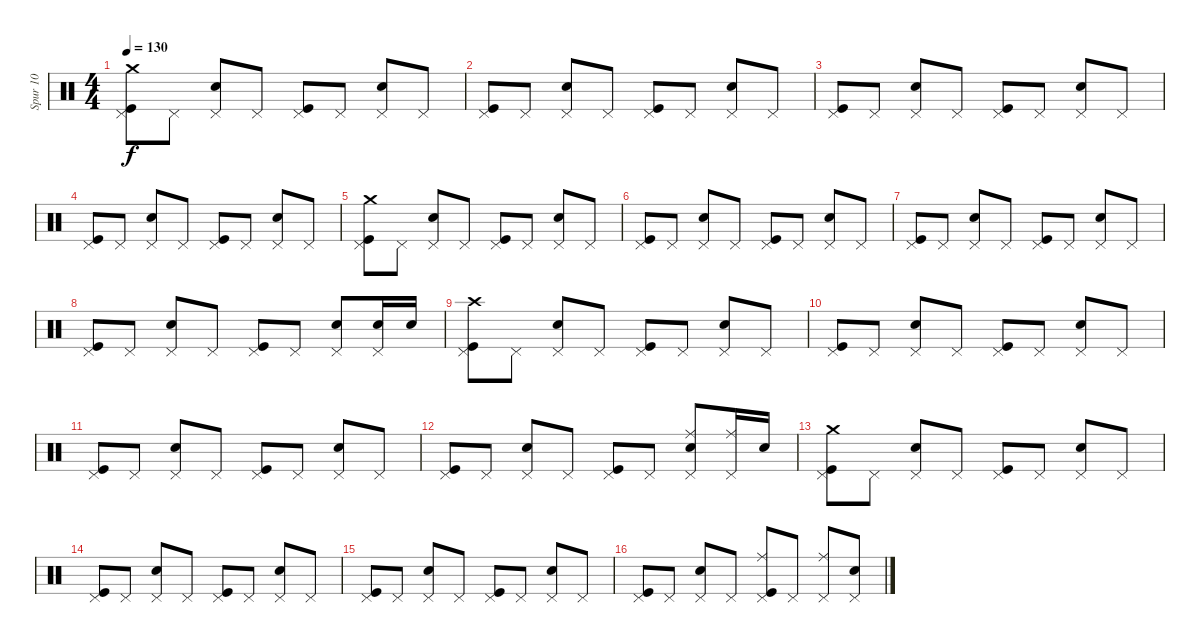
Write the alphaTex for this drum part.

\track ("Spur 10" "Spur 10") {instrument percussion}
\staff {score}
\articulation defaults
\ts (4 4)
\tempo 130
\clef neutral
\ks c
("Pedal Hi-Hat (hit)" "Kick (hit)" "Crash medium (hit)").8{dy f} "Pedal Hi-Hat (hit)".8 ("Pedal Hi-Hat (hit)" "Electric Snare (hit)").8 "Pedal Hi-Hat (hit)".8 ("Pedal Hi-Hat (hit)" "Kick (hit)").8 "Pedal Hi-Hat (hit)".8 ("Pedal Hi-Hat (hit)" "Electric Snare (hit)").8 "Pedal Hi-Hat (hit)".8 |
("Pedal Hi-Hat (hit)" "Kick (hit)").8 "Pedal Hi-Hat (hit)".8 ("Pedal Hi-Hat (hit)" "Electric Snare (hit)").8 "Pedal Hi-Hat (hit)".8 ("Pedal Hi-Hat (hit)" "Kick (hit)").8 "Pedal Hi-Hat (hit)".8 ("Pedal Hi-Hat (hit)" "Electric Snare (hit)").8 "Pedal Hi-Hat (hit)".8 |
("Pedal Hi-Hat (hit)" "Kick (hit)").8 "Pedal Hi-Hat (hit)".8 ("Pedal Hi-Hat (hit)" "Electric Snare (hit)").8 "Pedal Hi-Hat (hit)".8 ("Pedal Hi-Hat (hit)" "Kick (hit)").8 "Pedal Hi-Hat (hit)".8 ("Pedal Hi-Hat (hit)" "Electric Snare (hit)").8 "Pedal Hi-Hat (hit)".8 |
("Pedal Hi-Hat (hit)" "Kick (hit)").8 "Pedal Hi-Hat (hit)".8 ("Pedal Hi-Hat (hit)" "Electric Snare (hit)").8 "Pedal Hi-Hat (hit)".8 ("Pedal Hi-Hat (hit)" "Kick (hit)").8 "Pedal Hi-Hat (hit)".8 ("Pedal Hi-Hat (hit)" "Electric Snare (hit)").8 "Pedal Hi-Hat (hit)".8 |
("Pedal Hi-Hat (hit)" "Kick (hit)" "Crash medium (hit)").8 "Pedal Hi-Hat (hit)".8 ("Pedal Hi-Hat (hit)" "Electric Snare (hit)").8 "Pedal Hi-Hat (hit)".8 ("Pedal Hi-Hat (hit)" "Kick (hit)").8 "Pedal Hi-Hat (hit)".8 ("Pedal Hi-Hat (hit)" "Electric Snare (hit)").8 "Pedal Hi-Hat (hit)".8 |
("Pedal Hi-Hat (hit)" "Kick (hit)").8 "Pedal Hi-Hat (hit)".8 ("Pedal Hi-Hat (hit)" "Electric Snare (hit)").8 "Pedal Hi-Hat (hit)".8 ("Pedal Hi-Hat (hit)" "Kick (hit)").8 "Pedal Hi-Hat (hit)".8 ("Pedal Hi-Hat (hit)" "Electric Snare (hit)").8 "Pedal Hi-Hat (hit)".8 |
("Pedal Hi-Hat (hit)" "Kick (hit)").8 "Pedal Hi-Hat (hit)".8 ("Pedal Hi-Hat (hit)" "Electric Snare (hit)").8 "Pedal Hi-Hat (hit)".8 ("Pedal Hi-Hat (hit)" "Kick (hit)").8 "Pedal Hi-Hat (hit)".8 ("Pedal Hi-Hat (hit)" "Electric Snare (hit)").8 "Pedal Hi-Hat (hit)".8 |
("Pedal Hi-Hat (hit)" "Kick (hit)").8 "Pedal Hi-Hat (hit)".8 ("Pedal Hi-Hat (hit)" "Electric Snare (hit)").8 "Pedal Hi-Hat (hit)".8 ("Pedal Hi-Hat (hit)" "Kick (hit)").8 "Pedal Hi-Hat (hit)".8 ("Pedal Hi-Hat (hit)" "Electric Snare (hit)").8 ("Electric Snare (hit)" "Pedal Hi-Hat (hit)").16 "Electric Snare (hit)".16 |
("Crash high (hit)" "Pedal Hi-Hat (hit)" "Kick (hit)").8 "Pedal Hi-Hat (hit)".8 ("Pedal Hi-Hat (hit)" "Electric Snare (hit)").8 "Pedal Hi-Hat (hit)".8 ("Pedal Hi-Hat (hit)" "Kick (hit)").8 "Pedal Hi-Hat (hit)".8 ("Pedal Hi-Hat (hit)" "Electric Snare (hit)").8 "Pedal Hi-Hat (hit)".8 |
("Pedal Hi-Hat (hit)" "Kick (hit)").8 "Pedal Hi-Hat (hit)".8 ("Pedal Hi-Hat (hit)" "Electric Snare (hit)").8 "Pedal Hi-Hat (hit)".8 ("Pedal Hi-Hat (hit)" "Kick (hit)").8 "Pedal Hi-Hat (hit)".8 ("Pedal Hi-Hat (hit)" "Electric Snare (hit)").8 "Pedal Hi-Hat (hit)".8 |
("Pedal Hi-Hat (hit)" "Kick (hit)").8 "Pedal Hi-Hat (hit)".8 ("Pedal Hi-Hat (hit)" "Electric Snare (hit)").8 "Pedal Hi-Hat (hit)".8 ("Pedal Hi-Hat (hit)" "Kick (hit)").8 "Pedal Hi-Hat (hit)".8 ("Pedal Hi-Hat (hit)" "Electric Snare (hit)").8 "Pedal Hi-Hat (hit)".8 |
("Pedal Hi-Hat (hit)" "Kick (hit)").8 "Pedal Hi-Hat (hit)".8 ("Pedal Hi-Hat (hit)" "Electric Snare (hit)").8 "Pedal Hi-Hat (hit)".8 ("Pedal Hi-Hat (hit)" "Kick (hit)").8 "Pedal Hi-Hat (hit)".8 ("Ride (middle)" "Pedal Hi-Hat (hit)" "Electric Snare (hit)").8 ("Ride (middle)" "Pedal Hi-Hat (hit)").16 "Electric Snare (hit)".16 |
("Crash medium (hit)" "Pedal Hi-Hat (hit)" "Kick (hit)").8 "Pedal Hi-Hat (hit)".8 ("Pedal Hi-Hat (hit)" "Electric Snare (hit)").8 "Pedal Hi-Hat (hit)".8 ("Pedal Hi-Hat (hit)" "Kick (hit)").8 "Pedal Hi-Hat (hit)".8 ("Pedal Hi-Hat (hit)" "Electric Snare (hit)").8 "Pedal Hi-Hat (hit)".8 |
("Pedal Hi-Hat (hit)" "Kick (hit)").8 "Pedal Hi-Hat (hit)".8 ("Pedal Hi-Hat (hit)" "Electric Snare (hit)").8 "Pedal Hi-Hat (hit)".8 ("Pedal Hi-Hat (hit)" "Kick (hit)").8 "Pedal Hi-Hat (hit)".8 ("Pedal Hi-Hat (hit)" "Electric Snare (hit)").8 "Pedal Hi-Hat (hit)".8 |
("Pedal Hi-Hat (hit)" "Kick (hit)").8 "Pedal Hi-Hat (hit)".8 ("Pedal Hi-Hat (hit)" "Electric Snare (hit)").8 "Pedal Hi-Hat (hit)".8 ("Pedal Hi-Hat (hit)" "Kick (hit)").8 "Pedal Hi-Hat (hit)".8 ("Pedal Hi-Hat (hit)" "Electric Snare (hit)").8 "Pedal Hi-Hat (hit)".8 |
("Pedal Hi-Hat (hit)" "Kick (hit)").8 "Pedal Hi-Hat (hit)".8 ("Pedal Hi-Hat (hit)" "Electric Snare (hit)").8 "Pedal Hi-Hat (hit)".8 ("Ride (middle)" "Pedal Hi-Hat (hit)" "Kick (hit)").8 "Pedal Hi-Hat (hit)".8 ("Ride (middle)" "Pedal Hi-Hat (hit)").8 ("Electric Snare (hit)" "Pedal Hi-Hat (hit)").8
